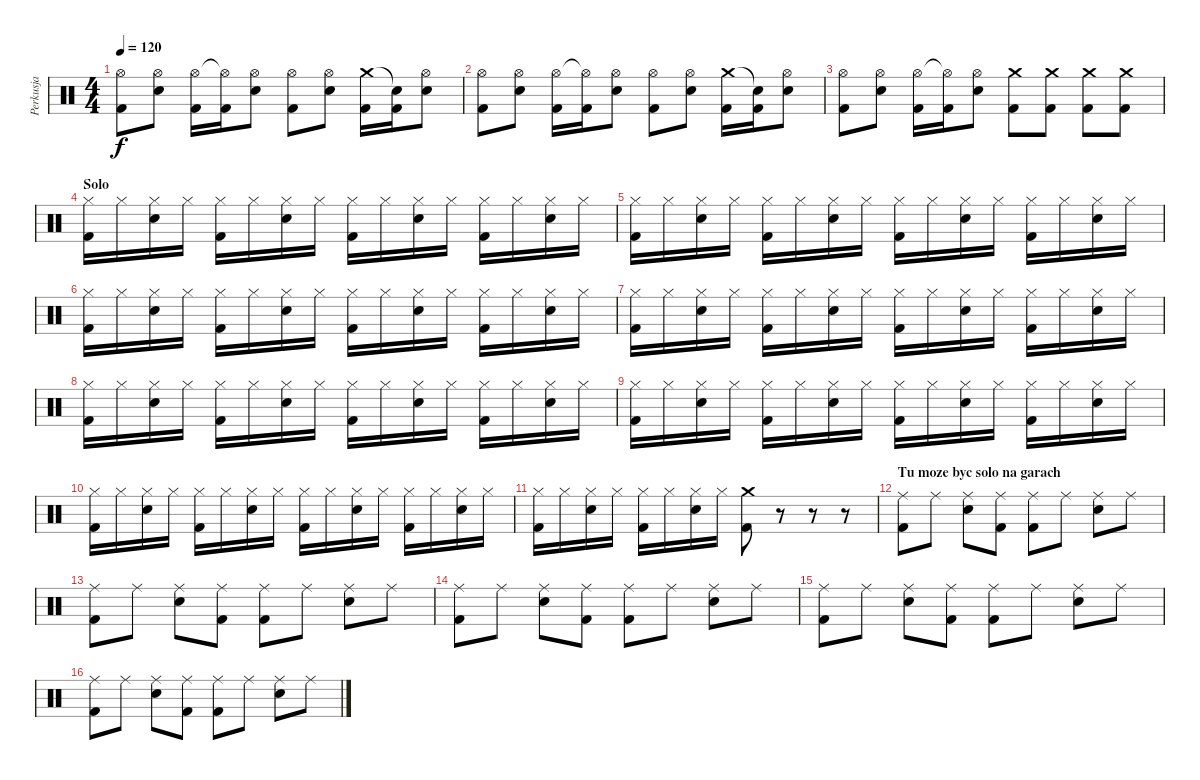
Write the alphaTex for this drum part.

\track ("Perkusja" "Perkusja") {instrument percussion}
\staff {score}
\articulation defaults
\ts (4 4)
\tempo 120
\clef neutral
\ks c
("Kick (hit) 2" "Hi-Hat (open)").8{dy f} ("Snare (hit) 2" "Hi-Hat (open)").8 ("Kick (hit) 2" "Hi-Hat (open)").16 ("Kick (hit) 2" "Hi-Hat (open)"{t}).16 ("Snare (hit) 2" "Hi-Hat (open)").8 ("Kick (hit) 2" "Hi-Hat (open)").8 ("Snare (hit) 2" "Hi-Hat (open)").8 ("Kick (hit) 2" "Crash medium (hit)").16 ("Kick (hit) 2" "Snare (hit)"{t}).16 ("Snare (hit) 2" "Hi-Hat (open)").8 |
("Kick (hit) 2" "Hi-Hat (open)").8 ("Snare (hit) 2" "Hi-Hat (open)").8 ("Kick (hit) 2" "Hi-Hat (open)").16 ("Kick (hit) 2" "Hi-Hat (open)"{t}).16 ("Snare (hit) 2" "Hi-Hat (open)").8 ("Kick (hit) 2" "Hi-Hat (open)").8 ("Snare (hit) 2" "Hi-Hat (open)").8 ("Kick (hit) 2" "Crash medium (hit)").16 ("Kick (hit) 2" "Snare (hit)"{t}).16 ("Snare (hit) 2" "Hi-Hat (open)").8 |
("Kick (hit) 2" "Hi-Hat (open)").8 ("Snare (hit) 2" "Hi-Hat (open)").8 ("Kick (hit) 2" "Hi-Hat (open)").16 ("Kick (hit) 2" "Hi-Hat (open)"{t}).16 ("Snare (hit) 2" "Hi-Hat (open)").8 ("Kick (hit) 2" "Crash medium (hit)").8 ("Kick (hit) 2" "Crash medium (hit)").8 ("Kick (hit) 2" "Crash medium (hit)").8 ("Kick (hit) 2" "Crash medium (hit)").8 |
\section ("" "Solo")
("Hi-Hat (closed)" "Kick (hit) 2").16 "Hi-Hat (closed)".16 ("Hi-Hat (closed)" "Snare (hit) 2").16 "Hi-Hat (closed)".16 ("Hi-Hat (closed)" "Kick (hit) 2").16 "Hi-Hat (closed)".16 ("Hi-Hat (closed)" "Snare (hit) 2").16 "Hi-Hat (closed)".16 ("Hi-Hat (closed)" "Kick (hit) 2").16 "Hi-Hat (closed)".16 ("Hi-Hat (closed)" "Snare (hit) 2").16 "Hi-Hat (closed)".16 ("Hi-Hat (closed)" "Kick (hit) 2").16 "Hi-Hat (closed)".16 ("Hi-Hat (closed)" "Snare (hit) 2").16 "Hi-Hat (closed)".16 |
("Hi-Hat (closed)" "Kick (hit) 2").16 "Hi-Hat (closed)".16 ("Hi-Hat (closed)" "Snare (hit) 2").16 "Hi-Hat (closed)".16 ("Hi-Hat (closed)" "Kick (hit) 2").16 "Hi-Hat (closed)".16 ("Hi-Hat (closed)" "Snare (hit) 2").16 "Hi-Hat (closed)".16 ("Hi-Hat (closed)" "Kick (hit) 2").16 "Hi-Hat (closed)".16 ("Hi-Hat (closed)" "Snare (hit) 2").16 "Hi-Hat (closed)".16 ("Hi-Hat (closed)" "Kick (hit) 2").16 "Hi-Hat (closed)".16 ("Hi-Hat (closed)" "Snare (hit) 2").16 "Hi-Hat (closed)".16 |
("Hi-Hat (closed)" "Kick (hit) 2").16 "Hi-Hat (closed)".16 ("Hi-Hat (closed)" "Snare (hit) 2").16 "Hi-Hat (closed)".16 ("Hi-Hat (closed)" "Kick (hit) 2").16 "Hi-Hat (closed)".16 ("Hi-Hat (closed)" "Snare (hit) 2").16 "Hi-Hat (closed)".16 ("Hi-Hat (closed)" "Kick (hit) 2").16 "Hi-Hat (closed)".16 ("Hi-Hat (closed)" "Snare (hit) 2").16 "Hi-Hat (closed)".16 ("Hi-Hat (closed)" "Kick (hit) 2").16 "Hi-Hat (closed)".16 ("Hi-Hat (closed)" "Snare (hit) 2").16 "Hi-Hat (closed)".16 |
("Hi-Hat (closed)" "Kick (hit) 2").16 "Hi-Hat (closed)".16 ("Hi-Hat (closed)" "Snare (hit) 2").16 "Hi-Hat (closed)".16 ("Hi-Hat (closed)" "Kick (hit) 2").16 "Hi-Hat (closed)".16 ("Hi-Hat (closed)" "Snare (hit) 2").16 "Hi-Hat (closed)".16 ("Hi-Hat (closed)" "Kick (hit) 2").16 "Hi-Hat (closed)".16 ("Hi-Hat (closed)" "Snare (hit) 2").16 "Hi-Hat (closed)".16 ("Hi-Hat (closed)" "Kick (hit) 2").16 "Hi-Hat (closed)".16 ("Hi-Hat (closed)" "Snare (hit) 2").16 "Hi-Hat (closed)".16 |
("Hi-Hat (closed)" "Kick (hit) 2").16 "Hi-Hat (closed)".16 ("Hi-Hat (closed)" "Snare (hit) 2").16 "Hi-Hat (closed)".16 ("Hi-Hat (closed)" "Kick (hit) 2").16 "Hi-Hat (closed)".16 ("Hi-Hat (closed)" "Snare (hit) 2").16 "Hi-Hat (closed)".16 ("Hi-Hat (closed)" "Kick (hit) 2").16 "Hi-Hat (closed)".16 ("Hi-Hat (closed)" "Snare (hit) 2").16 "Hi-Hat (closed)".16 ("Hi-Hat (closed)" "Kick (hit) 2").16 "Hi-Hat (closed)".16 ("Hi-Hat (closed)" "Snare (hit) 2").16 "Hi-Hat (closed)".16 |
("Hi-Hat (closed)" "Kick (hit) 2").16 "Hi-Hat (closed)".16 ("Hi-Hat (closed)" "Snare (hit) 2").16 "Hi-Hat (closed)".16 ("Hi-Hat (closed)" "Kick (hit) 2").16 "Hi-Hat (closed)".16 ("Hi-Hat (closed)" "Snare (hit) 2").16 "Hi-Hat (closed)".16 ("Hi-Hat (closed)" "Kick (hit) 2").16 "Hi-Hat (closed)".16 ("Hi-Hat (closed)" "Snare (hit) 2").16 "Hi-Hat (closed)".16 ("Hi-Hat (closed)" "Kick (hit) 2").16 "Hi-Hat (closed)".16 ("Hi-Hat (closed)" "Snare (hit) 2").16 "Hi-Hat (closed)".16 |
("Hi-Hat (closed)" "Kick (hit) 2").16 "Hi-Hat (closed)".16 ("Hi-Hat (closed)" "Snare (hit) 2").16 "Hi-Hat (closed)".16 ("Hi-Hat (closed)" "Kick (hit) 2").16 "Hi-Hat (closed)".16 ("Hi-Hat (closed)" "Snare (hit) 2").16 "Hi-Hat (closed)".16 ("Hi-Hat (closed)" "Kick (hit) 2").16 "Hi-Hat (closed)".16 ("Hi-Hat (closed)" "Snare (hit) 2").16 "Hi-Hat (closed)".16 ("Hi-Hat (closed)" "Kick (hit) 2").16 "Hi-Hat (closed)".16 ("Hi-Hat (closed)" "Snare (hit) 2").16 "Hi-Hat (closed)".16 |
("Hi-Hat (closed)" "Kick (hit) 2").16 "Hi-Hat (closed)".16 ("Hi-Hat (closed)" "Snare (hit) 2").16 "Hi-Hat (closed)".16 ("Hi-Hat (closed)" "Kick (hit) 2").16 "Hi-Hat (closed)".16 ("Hi-Hat (closed)" "Snare (hit) 2").16 "Hi-Hat (closed)".16 ("Crash medium (hit)" "Kick (hit) 2").8 r.8 r.8 r.8 |
\section ("" "Tu moze byc solo na garach")
("Ride (middle)" "Kick (hit) 2").8 "Ride (middle)".8 ("Ride (middle)" "Snare (hit) 2").8 ("Ride (middle)" "Kick (hit) 2").8 ("Ride (middle)" "Kick (hit) 2").8 "Ride (middle)".8 ("Ride (middle)" "Snare (hit) 2").8 "Ride (middle)".8 |
("Ride (middle)" "Kick (hit) 2").8 "Ride (middle)".8 ("Ride (middle)" "Snare (hit) 2").8 ("Ride (middle)" "Kick (hit) 2").8 ("Ride (middle)" "Kick (hit) 2").8 "Ride (middle)".8 ("Ride (middle)" "Snare (hit) 2").8 "Ride (middle)".8 |
("Ride (middle)" "Kick (hit) 2").8 "Ride (middle)".8 ("Ride (middle)" "Snare (hit) 2").8 ("Ride (middle)" "Kick (hit) 2").8 ("Ride (middle)" "Kick (hit) 2").8 "Ride (middle)".8 ("Ride (middle)" "Snare (hit) 2").8 "Ride (middle)".8 |
("Ride (middle)" "Kick (hit) 2").8 "Ride (middle)".8 ("Ride (middle)" "Snare (hit) 2").8 ("Ride (middle)" "Kick (hit) 2").8 ("Ride (middle)" "Kick (hit) 2").8 "Ride (middle)".8 ("Ride (middle)" "Snare (hit) 2").8 "Ride (middle)".8 |
("Ride (middle)" "Kick (hit) 2").8 "Ride (middle)".8 ("Ride (middle)" "Snare (hit) 2").8 ("Ride (middle)" "Kick (hit) 2").8 ("Ride (middle)" "Kick (hit) 2").8 "Ride (middle)".8 ("Ride (middle)" "Snare (hit) 2").8 "Ride (middle)".8
